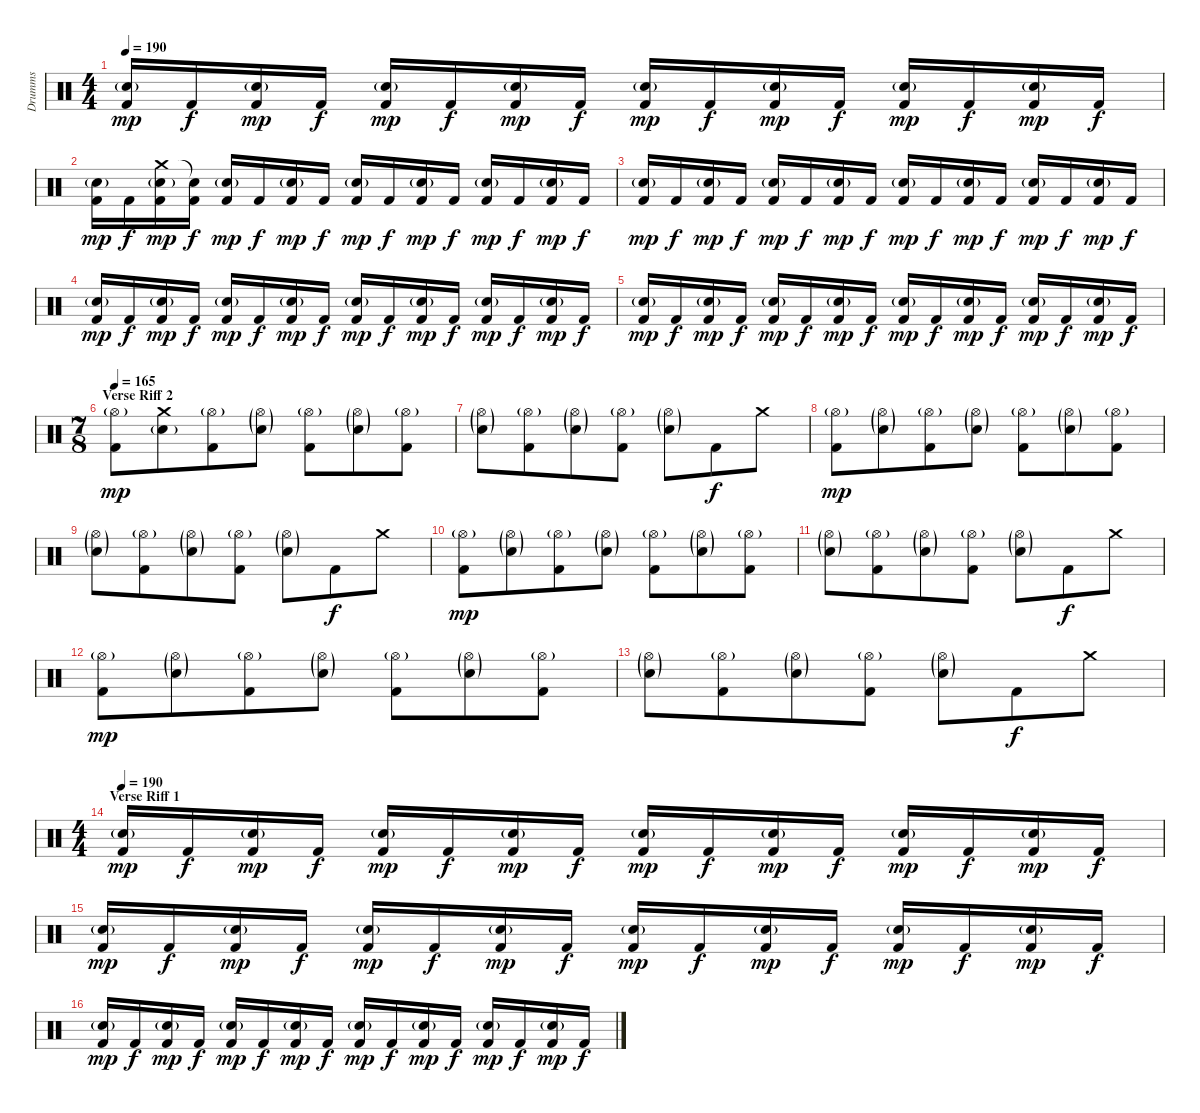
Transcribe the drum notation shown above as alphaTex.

\track ("Drumms" "Drumms") {instrument percussion}
\staff {score}
\articulation defaults
\ts (4 4)
\tempo 190
\clef neutral
\ks c
("Electric Snare (hit)"{g} "Kick (hit) 2").16{dy mp} "Kick (hit) 2".16{dy f} ("Electric Snare (hit)"{g} "Kick (hit) 2").16{dy mp} "Kick (hit) 2".16{dy f} ("Electric Snare (hit)"{g} "Kick (hit) 2").16{dy mp} "Kick (hit) 2".16{dy f} ("Electric Snare (hit)"{g} "Kick (hit) 2").16{dy mp} "Kick (hit) 2".16{dy f} ("Electric Snare (hit)"{g} "Kick (hit) 2").16{dy mp} "Kick (hit) 2".16{dy f} ("Electric Snare (hit)"{g} "Kick (hit) 2").16{dy mp} "Kick (hit) 2".16{dy f} ("Electric Snare (hit)"{g} "Kick (hit) 2").16{dy mp} "Kick (hit) 2".16{dy f} ("Electric Snare (hit)"{g} "Kick (hit) 2").16{dy mp} "Kick (hit) 2".16{dy f} |
("Electric Snare (hit)"{g} "Kick (hit) 2").16{dy mp} "Kick (hit) 2".16{dy f} ("Crash medium (hit)" "Electric Snare (hit)"{g} "Kick (hit) 2").16{dy mp} ("Snare (hit)"{t} "Kick (hit) 2").16{dy f} ("Electric Snare (hit)"{g} "Kick (hit) 2").16{dy mp} "Kick (hit) 2".16{dy f} ("Electric Snare (hit)"{g} "Kick (hit) 2").16{dy mp} "Kick (hit) 2".16{dy f} ("Electric Snare (hit)"{g} "Kick (hit) 2").16{dy mp} "Kick (hit) 2".16{dy f} ("Electric Snare (hit)"{g} "Kick (hit) 2").16{dy mp} "Kick (hit) 2".16{dy f} ("Electric Snare (hit)"{g} "Kick (hit) 2").16{dy mp} "Kick (hit) 2".16{dy f} ("Electric Snare (hit)"{g} "Kick (hit) 2").16{dy mp} "Kick (hit) 2".16{dy f} |
("Electric Snare (hit)"{g} "Kick (hit) 2").16{dy mp} "Kick (hit) 2".16{dy f} ("Electric Snare (hit)"{g} "Kick (hit) 2").16{dy mp} "Kick (hit) 2".16{dy f} ("Electric Snare (hit)"{g} "Kick (hit) 2").16{dy mp} "Kick (hit) 2".16{dy f} ("Electric Snare (hit)"{g} "Kick (hit) 2").16{dy mp} "Kick (hit) 2".16{dy f} ("Electric Snare (hit)"{g} "Kick (hit) 2").16{dy mp} "Kick (hit) 2".16{dy f} ("Electric Snare (hit)"{g} "Kick (hit) 2").16{dy mp} "Kick (hit) 2".16{dy f} ("Electric Snare (hit)"{g} "Kick (hit) 2").16{dy mp} "Kick (hit) 2".16{dy f} ("Electric Snare (hit)"{g} "Kick (hit) 2").16{dy mp} "Kick (hit) 2".16{dy f} |
("Electric Snare (hit)"{g} "Kick (hit) 2").16{dy mp} "Kick (hit) 2".16{dy f} ("Electric Snare (hit)"{g} "Kick (hit) 2").16{dy mp} "Kick (hit) 2".16{dy f} ("Electric Snare (hit)"{g} "Kick (hit) 2").16{dy mp} "Kick (hit) 2".16{dy f} ("Electric Snare (hit)"{g} "Kick (hit) 2").16{dy mp} "Kick (hit) 2".16{dy f} ("Electric Snare (hit)"{g} "Kick (hit) 2").16{dy mp} "Kick (hit) 2".16{dy f} ("Electric Snare (hit)"{g} "Kick (hit) 2").16{dy mp} "Kick (hit) 2".16{dy f} ("Electric Snare (hit)"{g} "Kick (hit) 2").16{dy mp} "Kick (hit) 2".16{dy f} ("Electric Snare (hit)"{g} "Kick (hit) 2").16{dy mp} "Kick (hit) 2".16{dy f} |
("Electric Snare (hit)"{g} "Kick (hit) 2").16{dy mp} "Kick (hit) 2".16{dy f} ("Electric Snare (hit)"{g} "Kick (hit) 2").16{dy mp} "Kick (hit) 2".16{dy f} ("Electric Snare (hit)"{g} "Kick (hit) 2").16{dy mp} "Kick (hit) 2".16{dy f} ("Electric Snare (hit)"{g} "Kick (hit) 2").16{dy mp} "Kick (hit) 2".16{dy f} ("Electric Snare (hit)"{g} "Kick (hit) 2").16{dy mp} "Kick (hit) 2".16{dy f} ("Electric Snare (hit)"{g} "Kick (hit) 2").16{dy mp} "Kick (hit) 2".16{dy f} ("Electric Snare (hit)"{g} "Kick (hit) 2").16{dy mp} "Kick (hit) 2".16{dy f} ("Electric Snare (hit)"{g} "Kick (hit) 2").16{dy mp} "Kick (hit) 2".16{dy f} |
\ts (7 8)
\section ("" "Verse Riff 2")
\tempo 165
("Hi-Hat (open)"{g} "Kick (hit) 2").8{dy mp} ("Crash medium (hit)" "Snare (hit) 2"{g}).8 ("Hi-Hat (open)"{g} "Kick (hit) 2").8 ("Hi-Hat (open)"{g} "Snare (hit) 2"{g}).8 ("Hi-Hat (open)"{g} "Kick (hit) 2").8 ("Hi-Hat (open)"{g} "Snare (hit) 2"{g}).8 ("Hi-Hat (open)"{g} "Kick (hit) 2").8 |
("Hi-Hat (open)"{g} "Snare (hit) 2"{g}).8 ("Hi-Hat (open)"{g} "Kick (hit) 2").8 ("Hi-Hat (open)"{g} "Snare (hit) 2"{g}).8 ("Hi-Hat (open)"{g} "Kick (hit) 2").8 ("Hi-Hat (open)"{g} "Snare (hit) 2"{g}).8 "Kick (hit) 2".8{dy f} "Crash medium (hit)".8 |
("Hi-Hat (open)"{g} "Kick (hit) 2").8{dy mp} ("Hi-Hat (open)"{g} "Snare (hit) 2"{g}).8 ("Hi-Hat (open)"{g} "Kick (hit) 2").8 ("Hi-Hat (open)"{g} "Snare (hit) 2"{g}).8 ("Hi-Hat (open)"{g} "Kick (hit) 2").8 ("Hi-Hat (open)"{g} "Snare (hit) 2"{g}).8 ("Hi-Hat (open)"{g} "Kick (hit) 2").8 |
("Hi-Hat (open)"{g} "Snare (hit) 2"{g}).8 ("Hi-Hat (open)"{g} "Kick (hit) 2").8 ("Hi-Hat (open)"{g} "Snare (hit) 2"{g}).8 ("Hi-Hat (open)"{g} "Kick (hit) 2").8 ("Hi-Hat (open)"{g} "Snare (hit) 2"{g}).8 "Kick (hit) 2".8{dy f} "Crash medium (hit)".8 |
("Hi-Hat (open)"{g} "Kick (hit) 2").8{dy mp} ("Hi-Hat (open)"{g} "Snare (hit) 2"{g}).8 ("Hi-Hat (open)"{g} "Kick (hit) 2").8 ("Hi-Hat (open)"{g} "Snare (hit) 2"{g}).8 ("Hi-Hat (open)"{g} "Kick (hit) 2").8 ("Hi-Hat (open)"{g} "Snare (hit) 2"{g}).8 ("Hi-Hat (open)"{g} "Kick (hit) 2").8 |
("Hi-Hat (open)"{g} "Snare (hit) 2"{g}).8 ("Hi-Hat (open)"{g} "Kick (hit) 2").8 ("Hi-Hat (open)"{g} "Snare (hit) 2"{g}).8 ("Hi-Hat (open)"{g} "Kick (hit) 2").8 ("Hi-Hat (open)"{g} "Snare (hit) 2"{g}).8 "Kick (hit) 2".8{dy f} "Crash medium (hit)".8 |
("Hi-Hat (open)"{g} "Kick (hit) 2").8{dy mp} ("Hi-Hat (open)"{g} "Snare (hit) 2"{g}).8 ("Hi-Hat (open)"{g} "Kick (hit) 2").8 ("Hi-Hat (open)"{g} "Snare (hit) 2"{g}).8 ("Hi-Hat (open)"{g} "Kick (hit) 2").8 ("Hi-Hat (open)"{g} "Snare (hit) 2"{g}).8 ("Hi-Hat (open)"{g} "Kick (hit) 2").8 |
("Hi-Hat (open)"{g} "Snare (hit) 2"{g}).8 ("Hi-Hat (open)"{g} "Kick (hit) 2").8 ("Hi-Hat (open)"{g} "Snare (hit) 2"{g}).8 ("Hi-Hat (open)"{g} "Kick (hit) 2").8 ("Hi-Hat (open)"{g} "Snare (hit) 2"{g}).8 "Kick (hit) 2".8{dy f} "Crash medium (hit)".8 |
\ts (4 4)
\section ("" "Verse Riff 1")
\tempo 190
("Electric Snare (hit)"{g} "Kick (hit) 2").16{dy mp} "Kick (hit) 2".16{dy f} ("Electric Snare (hit)"{g} "Kick (hit) 2").16{dy mp} "Kick (hit) 2".16{dy f} ("Electric Snare (hit)"{g} "Kick (hit) 2").16{dy mp} "Kick (hit) 2".16{dy f} ("Electric Snare (hit)"{g} "Kick (hit) 2").16{dy mp} "Kick (hit) 2".16{dy f} ("Electric Snare (hit)"{g} "Kick (hit) 2").16{dy mp} "Kick (hit) 2".16{dy f} ("Electric Snare (hit)"{g} "Kick (hit) 2").16{dy mp} "Kick (hit) 2".16{dy f} ("Electric Snare (hit)"{g} "Kick (hit) 2").16{dy mp} "Kick (hit) 2".16{dy f} ("Electric Snare (hit)"{g} "Kick (hit) 2").16{dy mp} "Kick (hit) 2".16{dy f} |
("Electric Snare (hit)"{g} "Kick (hit) 2").16{dy mp} "Kick (hit) 2".16{dy f} ("Electric Snare (hit)"{g} "Kick (hit) 2").16{dy mp} "Kick (hit) 2".16{dy f} ("Electric Snare (hit)"{g} "Kick (hit) 2").16{dy mp} "Kick (hit) 2".16{dy f} ("Electric Snare (hit)"{g} "Kick (hit) 2").16{dy mp} "Kick (hit) 2".16{dy f} ("Electric Snare (hit)"{g} "Kick (hit) 2").16{dy mp} "Kick (hit) 2".16{dy f} ("Electric Snare (hit)"{g} "Kick (hit) 2").16{dy mp} "Kick (hit) 2".16{dy f} ("Electric Snare (hit)"{g} "Kick (hit) 2").16{dy mp} "Kick (hit) 2".16{dy f} ("Electric Snare (hit)"{g} "Kick (hit) 2").16{dy mp} "Kick (hit) 2".16{dy f} |
("Electric Snare (hit)"{g} "Kick (hit) 2").16{dy mp} "Kick (hit) 2".16{dy f} ("Electric Snare (hit)"{g} "Kick (hit) 2").16{dy mp} "Kick (hit) 2".16{dy f} ("Electric Snare (hit)"{g} "Kick (hit) 2").16{dy mp} "Kick (hit) 2".16{dy f} ("Electric Snare (hit)"{g} "Kick (hit) 2").16{dy mp} "Kick (hit) 2".16{dy f} ("Electric Snare (hit)"{g} "Kick (hit) 2").16{dy mp} "Kick (hit) 2".16{dy f} ("Electric Snare (hit)"{g} "Kick (hit) 2").16{dy mp} "Kick (hit) 2".16{dy f} ("Electric Snare (hit)"{g} "Kick (hit) 2").16{dy mp} "Kick (hit) 2".16{dy f} ("Electric Snare (hit)"{g} "Kick (hit) 2").16{dy mp} "Kick (hit) 2".16{dy f}
